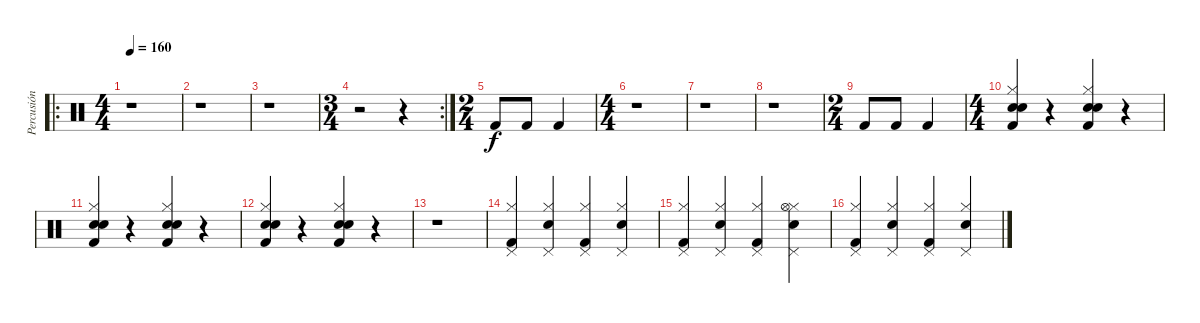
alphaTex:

\track ("Percusión" "Percusión") {instrument percussion}
\staff {score}
\articulation defaults
\ro
\ts (4 4)
\tempo 160
\clef neutral
\ks c
r.1{dy f} |
r.1 |
r.1 |
\rc 2
\ts (3 4)
r.2 r.4 |
\ts (2 4)
"Kick (hit) 2".8 "Kick (hit) 2".8 "Kick (hit) 2".4 |
\ts (4 4)
r.1 |
r.1 |
r.1 |
\ts (2 4)
"Kick (hit) 2".8 "Kick (hit) 2".8 "Kick (hit) 2".4 |
\ts (4 4)
("Snare (hit) 2" "Kick (hit) 2" "Hi-Hat (closed)" "Electric Snare (hit)").4 r.4 ("Snare (hit) 2" "Kick (hit) 2" "Hi-Hat (closed)" "Electric Snare (hit)").4 r.4 |
("Snare (hit) 2" "Kick (hit) 2" "Electric Snare (hit)" "Hi-Hat (closed)").4 r.4 ("Snare (hit) 2" "Kick (hit) 2" "Hi-Hat (closed)" "Electric Snare (hit)").4 r.4 |
("Snare (hit) 2" "Kick (hit) 2" "Hi-Hat (closed)" "Electric Snare (hit)").4 r.4 ("Snare (hit) 2" "Kick (hit) 2" "Hi-Hat (closed)" "Electric Snare (hit)").4 r.4 |
r.1 |
("Hi-Hat (closed)" "Kick (hit) 2" "Pedal Hi-Hat (hit)").4 ("Hi-Hat (closed)" "Snare (hit) 2" "Pedal Hi-Hat (hit)").4 ("Hi-Hat (closed)" "Kick (hit) 2" "Pedal Hi-Hat (hit)").4 ("Hi-Hat (closed)" "Snare (hit) 2" "Pedal Hi-Hat (hit)").4 |
("Hi-Hat (closed)" "Kick (hit) 2" "Pedal Hi-Hat (hit)").4 ("Hi-Hat (closed)" "Snare (hit) 2" "Pedal Hi-Hat (hit)").4 ("Hi-Hat (closed)" "Kick (hit) 2" "Pedal Hi-Hat (hit)").4 ("Hi-Hat (closed)" "Snare (hit) 2" "Pedal Hi-Hat (hit)" "Hi-Hat (open)").4 |
("Hi-Hat (closed)" "Kick (hit) 2" "Pedal Hi-Hat (hit)").4 ("Hi-Hat (closed)" "Snare (hit) 2" "Pedal Hi-Hat (hit)").4 ("Hi-Hat (closed)" "Kick (hit) 2" "Pedal Hi-Hat (hit)").4 ("Hi-Hat (closed)" "Snare (hit) 2" "Pedal Hi-Hat (hit)").4
